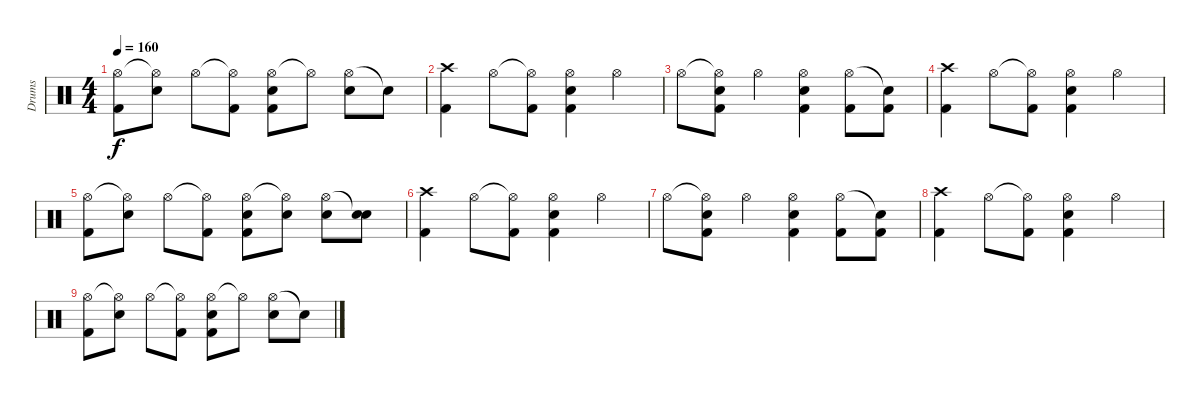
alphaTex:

\track ("Drums" "Drums") {instrument percussion}
\staff {score}
\articulation defaults
\ts (4 4)
\tempo 160
\clef neutral
\ks c
("Hi-Hat (open)" "Kick (hit) 2").8{dy f} ("Hi-Hat (open)"{t} "Snare (hit) 2").8 "Hi-Hat (open)".8 ("Hi-Hat (open)"{t} "Kick (hit) 2").8 ("Hi-Hat (open)" "Snare (hit) 2" "Kick (hit) 2").8 "Hi-Hat (open)"{t}.8 ("Hi-Hat (open)" "Snare (hit) 2"{tr (38 32)}).8 "Snare (hit)"{t}.8 |
("Crash high (hit)" "Kick (hit) 2").4{volume 14} "Hi-Hat (open)".8 ("Hi-Hat (open)"{t} "Kick (hit) 2").8 ("Hi-Hat (open)" "Snare (hit) 2" "Kick (hit) 2").4 "Hi-Hat (open)".4 |
"Hi-Hat (open)".8 ("Hi-Hat (open)"{t} "Snare (hit) 2" "Kick (hit) 2").8 "Hi-Hat (open)".4 ("Hi-Hat (open)" "Snare (hit) 2" "Kick (hit) 2").4 ("Hi-Hat (open)" "Kick (hit) 2").8 ("Snare (hit)"{t} "Kick (hit) 2").8 |
("Crash high (hit)" "Kick (hit) 2").4 "Hi-Hat (open)".8 ("Hi-Hat (open)"{t} "Kick (hit) 2").8 ("Hi-Hat (open)" "Snare (hit) 2" "Kick (hit) 2").4 "Hi-Hat (open)".4 |
("Hi-Hat (open)" "Kick (hit) 2").8 ("Hi-Hat (open)"{t} "Snare (hit) 2").8 "Hi-Hat (open)".8 ("Hi-Hat (open)"{t} "Kick (hit) 2").8 ("Hi-Hat (open)" "Snare (hit) 2" "Kick (hit) 2").8 ("Hi-Hat (open)"{t} "Snare (hit) 2").8 ("Hi-Hat (open)" "Snare (hit) 2").8 ("Snare (hit)"{t} "Snare (hit) 2").8 |
("Crash high (hit)" "Kick (hit) 2").4{volume 10} "Hi-Hat (open)".8 ("Hi-Hat (open)"{t} "Kick (hit) 2").8 ("Hi-Hat (open)" "Snare (hit) 2" "Kick (hit) 2").4 "Hi-Hat (open)".4 |
"Hi-Hat (open)".8 ("Hi-Hat (open)"{t} "Snare (hit) 2" "Kick (hit) 2").8 "Hi-Hat (open)".4 ("Hi-Hat (open)" "Snare (hit) 2" "Kick (hit) 2").4 ("Hi-Hat (open)" "Kick (hit) 2").8 ("Snare (hit)"{t} "Kick (hit) 2").8 |
("Crash high (hit)" "Kick (hit) 2").4 "Hi-Hat (open)".8 ("Hi-Hat (open)"{t} "Kick (hit) 2").8 ("Hi-Hat (open)" "Snare (hit) 2" "Kick (hit) 2").4 "Hi-Hat (open)".4 |
("Hi-Hat (open)" "Kick (hit) 2").8 ("Hi-Hat (open)"{t} "Snare (hit) 2").8 "Hi-Hat (open)".8 ("Hi-Hat (open)"{t} "Kick (hit) 2").8 ("Hi-Hat (open)" "Snare (hit) 2" "Kick (hit) 2").8 "Hi-Hat (open)"{t}.8 ("Hi-Hat (open)" "Snare (hit) 2"{tr (38 32)}).8 "Snare (hit)"{t}.8
